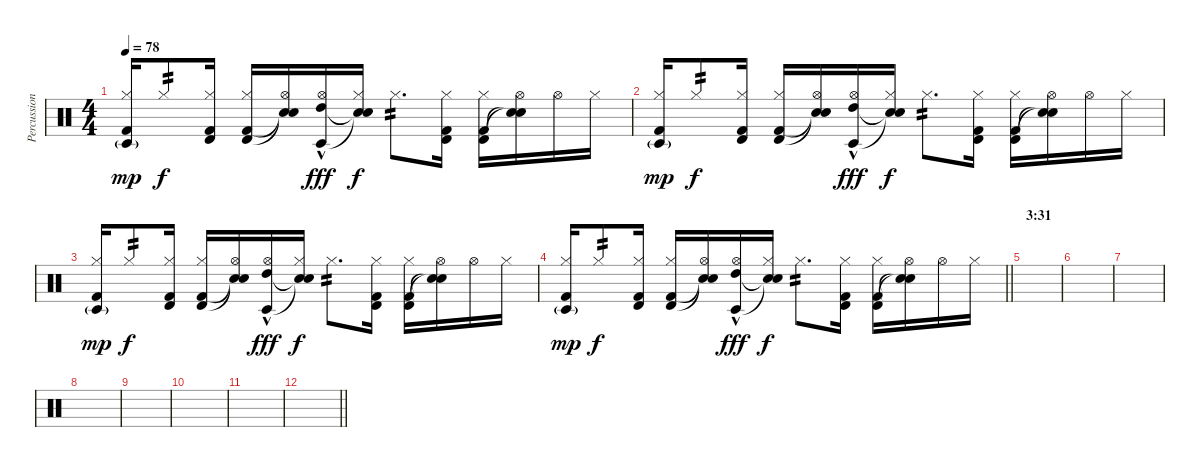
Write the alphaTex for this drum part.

\track ("Percussion" "Percussion") {instrument percussion}
\staff {score}
\articulation defaults
\ts (4 4)
\tempo 78
\clef neutral
\ks c
("Timbale low (hit)"{g} "Hi-Hat (closed)" "Kick (hit) 2").16{dy mp} "Hi-Hat (closed)".8{tp 2 dy f} ("Timbale high (hit)" "Hi-Hat (closed)" "Kick (hit) 2").16 ("Timbale high (hit)" "Hi-Hat (closed)" "Kick (hit) 2").16 ("Snare (hit)"{t} "Hi-Hat (open)" "Snare (hit)"{t}).16 ("Timbale low (hit)" "Hi-Hat (open)" "High Tom (hit)"{hac}).16{dy fff} ("Snare (hit)"{t} "Hi-Hat (closed)" "Snare (hit)"{t}).16{dy f} "Hi-Hat (closed)".8{d tp 2} ("Timbale high (hit)" "Hi-Hat (closed)" "Kick (hit) 2").16 ("Timbale high (hit)" "Hi-Hat (closed)" "Kick (hit) 2").16 ("Snare (hit)"{t} "Hi-Hat (open)" "Snare (hit)"{t}).16 "Hi-Hat (open)".16 "Hi-Hat (closed)".16 |
("Timbale low (hit)"{g} "Hi-Hat (closed)" "Kick (hit) 2").16{dy mp} "Hi-Hat (closed)".8{tp 2 dy f} ("Timbale high (hit)" "Hi-Hat (closed)" "Kick (hit) 2").16 ("Timbale high (hit)" "Hi-Hat (closed)" "Kick (hit) 2").16 ("Snare (hit)"{t} "Hi-Hat (open)" "Snare (hit)"{t}).16 ("Timbale low (hit)" "Hi-Hat (open)" "High Tom (hit)"{hac}).16{dy fff} ("Snare (hit)"{t} "Hi-Hat (closed)" "Snare (hit)"{t}).16{dy f} "Hi-Hat (closed)".8{d tp 2} ("Timbale high (hit)" "Hi-Hat (closed)" "Kick (hit) 2").16 ("Timbale high (hit)" "Hi-Hat (closed)" "Kick (hit) 2").16 ("Snare (hit)"{t} "Hi-Hat (open)" "Snare (hit)"{t}).16 "Hi-Hat (open)".16 "Hi-Hat (closed)".16 |
("Timbale low (hit)"{g} "Hi-Hat (closed)" "Kick (hit) 2").16{dy mp} "Hi-Hat (closed)".8{tp 2 dy f} ("Timbale high (hit)" "Hi-Hat (closed)" "Kick (hit) 2").16 ("Timbale high (hit)" "Hi-Hat (closed)" "Kick (hit) 2").16 ("Snare (hit)"{t} "Hi-Hat (open)" "Snare (hit)"{t}).16 ("Timbale low (hit)" "Hi-Hat (open)" "High Tom (hit)"{hac}).16{dy fff} ("Snare (hit)"{t} "Hi-Hat (closed)" "Snare (hit)"{t}).16{dy f} "Hi-Hat (closed)".8{d tp 2} ("Timbale high (hit)" "Hi-Hat (closed)" "Kick (hit) 2").16 ("Timbale high (hit)" "Hi-Hat (closed)" "Kick (hit) 2").16 ("Snare (hit)"{t} "Hi-Hat (open)" "Snare (hit)"{t}).16 "Hi-Hat (open)".16 "Hi-Hat (closed)".16 |
\barLineRight lightlight
("Timbale low (hit)"{g} "Hi-Hat (closed)" "Kick (hit) 2").16{dy mp} "Hi-Hat (closed)".8{tp 2 dy f} ("Timbale high (hit)" "Hi-Hat (closed)" "Kick (hit) 2").16 ("Timbale high (hit)" "Hi-Hat (closed)" "Kick (hit) 2").16 ("Snare (hit)"{t} "Hi-Hat (open)" "Snare (hit)"{t}).16 ("Timbale low (hit)" "Hi-Hat (open)" "High Tom (hit)"{hac}).16{dy fff} ("Snare (hit)"{t} "Hi-Hat (closed)" "Snare (hit)"{t}).16{dy f} "Hi-Hat (closed)".8{d tp 2} ("Timbale high (hit)" "Hi-Hat (closed)" "Kick (hit) 2").16 ("Timbale high (hit)" "Hi-Hat (closed)" "Kick (hit) 2").16 ("Snare (hit)"{t} "Hi-Hat (open)" "Snare (hit)"{t}).16 "Hi-Hat (open)".16 "Hi-Hat (closed)".16 |
\section ("" "3:31")
|
|
|
|
|
|
|
\barLineRight lightlight
